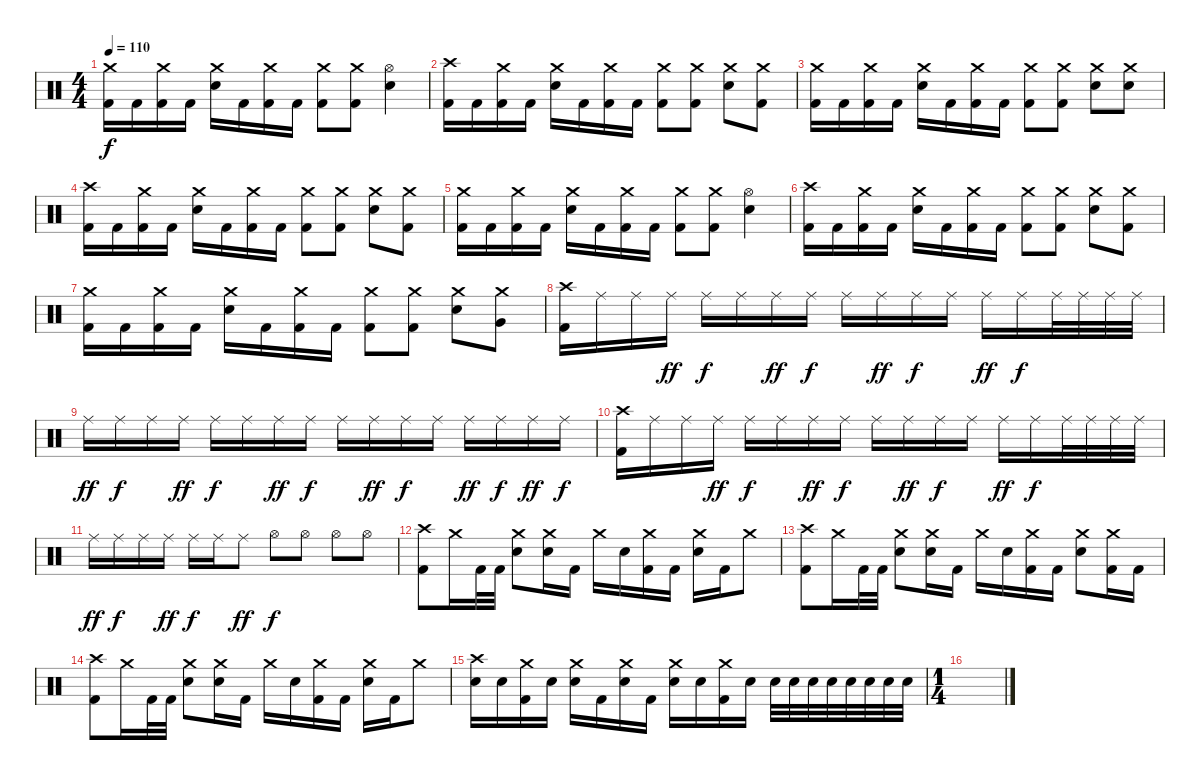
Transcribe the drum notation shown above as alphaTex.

\track "" {instrument percussion}
\staff {score}
\articulation defaults
\ts (4 4)
\tempo 110
\clef neutral
\ks c
("Crash medium (hit)" "Kick (hit) 2").16{dy f} "Kick (hit) 2".16 ("Crash medium (hit)" "Kick (hit) 2").16 "Kick (hit) 2".16 ("Crash medium (hit)" "Electric Snare (hit)").16 "Kick (hit) 2".16 ("Crash medium (hit)" "Kick (hit) 2").16 "Kick (hit) 2".16 ("Crash medium (hit)" "Kick (hit) 2").8 ("Crash medium (hit)" "Kick (hit) 2").8 ("Hi-Hat (open)" "Electric Snare (hit)").4 |
("Crash high (hit)" "Kick (hit) 2").16 "Kick (hit) 2".16 ("Crash medium (hit)" "Kick (hit) 2").16 "Kick (hit) 2".16 ("Crash medium (hit)" "Electric Snare (hit)").16 "Kick (hit) 2".16 ("Crash medium (hit)" "Kick (hit) 2").16 "Kick (hit) 2".16 ("Crash medium (hit)" "Kick (hit) 2").8 ("Crash medium (hit)" "Kick (hit) 2").8 ("Crash medium (hit)" "Electric Snare (hit)").8 ("Crash medium (hit)" "Kick (hit) 2").8 |
("Crash medium (hit)" "Kick (hit) 2").16 "Kick (hit) 2".16 ("Crash medium (hit)" "Kick (hit) 2").16 "Kick (hit) 2".16 ("Crash medium (hit)" "Electric Snare (hit)").16 "Kick (hit) 2".16 ("Crash medium (hit)" "Kick (hit) 2").16 "Kick (hit) 2".16 ("Crash medium (hit)" "Kick (hit) 2").8 ("Crash medium (hit)" "Kick (hit) 2").8 ("Crash medium (hit)" "Electric Snare (hit)").8 ("Crash medium (hit)" "Electric Snare (hit)").8 |
("Crash high (hit)" "Kick (hit) 2").16 "Kick (hit) 2".16 ("Crash medium (hit)" "Kick (hit) 2").16 "Kick (hit) 2".16 ("Crash medium (hit)" "Electric Snare (hit)").16 "Kick (hit) 2".16 ("Crash medium (hit)" "Kick (hit) 2").16 "Kick (hit) 2".16 ("Crash medium (hit)" "Kick (hit) 2").8 ("Crash medium (hit)" "Kick (hit) 2").8 ("Crash medium (hit)" "Electric Snare (hit)").8 ("Crash medium (hit)" "Kick (hit) 2").8 |
("Crash medium (hit)" "Kick (hit) 2").16 "Kick (hit) 2".16 ("Crash medium (hit)" "Kick (hit) 2").16 "Kick (hit) 2".16 ("Crash medium (hit)" "Electric Snare (hit)").16 "Kick (hit) 2".16 ("Crash medium (hit)" "Kick (hit) 2").16 "Kick (hit) 2".16 ("Crash medium (hit)" "Kick (hit) 2").8 ("Crash medium (hit)" "Kick (hit) 2").8 ("Hi-Hat (open)" "Electric Snare (hit)").4 |
("Crash high (hit)" "Kick (hit) 2").16 "Kick (hit) 2".16 ("Crash medium (hit)" "Kick (hit) 2").16 "Kick (hit) 2".16 ("Crash medium (hit)" "Electric Snare (hit)").16 "Kick (hit) 2".16 ("Crash medium (hit)" "Kick (hit) 2").16 "Kick (hit) 2".16 ("Crash medium (hit)" "Kick (hit) 2").8 ("Crash medium (hit)" "Kick (hit) 2").8 ("Crash medium (hit)" "Electric Snare (hit)").8 ("Crash medium (hit)" "Kick (hit) 2").8 |
("Crash medium (hit)" "Kick (hit) 2").16 "Kick (hit) 2".16 ("Crash medium (hit)" "Kick (hit) 2").16 "Kick (hit) 2".16 ("Crash medium (hit)" "Electric Snare (hit)").16 "Kick (hit) 2".16 ("Crash medium (hit)" "Kick (hit) 2").16 "Kick (hit) 2".16 ("Crash medium (hit)" "Kick (hit) 2").8 ("Crash medium (hit)" "Kick (hit) 2").8 ("Crash medium (hit)" "Electric Snare (hit)").8 ("Crash medium (hit)" "Very Low Tom (hit)").8 |
("Crash high (hit)" "Kick (hit) 2").16 "Ride (middle)".16 "Ride (middle)".16 "Ride (middle)".16{dy ff} "Ride (middle)".16{dy f} "Ride (middle)".16 "Ride (middle)".16{dy ff} "Ride (middle)".16{dy f} "Ride (middle)".16 "Ride (middle)".16{dy ff} "Ride (middle)".16{dy f} "Ride (middle)".16 "Ride (middle)".16{dy ff} "Ride (middle)".16{dy f} "Ride (middle)".32 "Ride (middle)".32 "Ride (middle)".32 "Ride (middle)".32 |
"Ride (middle)".16{dy ff} "Ride (middle)".16{dy f} "Ride (middle)".16 "Ride (middle)".16{dy ff} "Ride (middle)".16{dy f} "Ride (middle)".16 "Ride (middle)".16{dy ff} "Ride (middle)".16{dy f} "Ride (middle)".16 "Ride (middle)".16{dy ff} "Ride (middle)".16{dy f} "Ride (middle)".16 "Ride (middle)".16{dy ff} "Ride (middle)".16{dy f} "Ride (middle)".16{dy ff} "Ride (middle)".16{dy f} |
("Crash high (hit)" "Kick (hit) 2").16 "Ride (middle)".16 "Ride (middle)".16 "Ride (middle)".16{dy ff} "Ride (middle)".16{dy f} "Ride (middle)".16 "Ride (middle)".16{dy ff} "Ride (middle)".16{dy f} "Ride (middle)".16 "Ride (middle)".16{dy ff} "Ride (middle)".16{dy f} "Ride (middle)".16 "Ride (middle)".16{dy ff} "Ride (middle)".16{dy f} "Ride (middle)".32 "Ride (middle)".32 "Ride (middle)".32 "Ride (middle)".32 |
"Ride (middle)".16{dy ff} "Ride (middle)".16{dy f} "Ride (middle)".16 "Ride (middle)".16{dy ff} "Ride (middle)".16{dy f} "Ride (middle)".16 "Ride (middle)".8{dy ff} "Hi-Hat (open)".8{dy f} "Hi-Hat (open)".8 "Hi-Hat (open)".8 "Hi-Hat (open)".8 |
("Crash high (hit)" "Kick (hit) 2").8 "Crash medium (hit)".16 "Kick (hit) 2".32 "Kick (hit) 2".32 ("Crash medium (hit)" "Electric Snare (hit)").8 ("Crash medium (hit)" "Electric Snare (hit)").16 "Kick (hit) 2".16 "Crash medium (hit)".16 "Electric Snare (hit)".16 ("Crash medium (hit)" "Kick (hit) 2").16 "Kick (hit) 2".16 ("Crash medium (hit)" "Electric Snare (hit)").16 "Kick (hit) 2".16 "Crash medium (hit)".8 |
("Crash high (hit)" "Kick (hit) 2").8 "Crash medium (hit)".16 "Kick (hit) 2".32 "Kick (hit) 2".32 ("Crash medium (hit)" "Electric Snare (hit)").8 ("Crash medium (hit)" "Electric Snare (hit)").16 "Kick (hit) 2".16 "Crash medium (hit)".16 "Electric Snare (hit)".16 ("Crash medium (hit)" "Kick (hit) 2").16 "Kick (hit) 2".16 ("Crash medium (hit)" "Electric Snare (hit)").8 ("Crash medium (hit)" "Kick (hit) 2").16 "Kick (hit) 2".16 |
("Crash high (hit)" "Kick (hit) 2").8 "Crash medium (hit)".16 "Kick (hit) 2".32 "Kick (hit) 2".32 ("Crash medium (hit)" "Electric Snare (hit)").8 ("Crash medium (hit)" "Electric Snare (hit)").16 "Kick (hit) 2".16 "Crash medium (hit)".16 "Electric Snare (hit)".16 ("Crash medium (hit)" "Kick (hit) 2").16 "Kick (hit) 2".16 ("Crash medium (hit)" "Electric Snare (hit)").16 "Kick (hit) 2".16 "Crash medium (hit)".8 |
("Crash high (hit)" "Electric Snare (hit)").16 "Electric Snare (hit)".16 ("Crash medium (hit)" "Kick (hit) 2").16 "Electric Snare (hit)".16 ("Crash medium (hit)" "Electric Snare (hit)").16 "Kick (hit) 2".16 ("Crash medium (hit)" "Electric Snare (hit)").16 "Kick (hit) 2".16 ("Crash medium (hit)" "Electric Snare (hit)").16 "Electric Snare (hit)".16 ("Crash medium (hit)" "Kick (hit) 2").16 "Electric Snare (hit)".16 "Electric Snare (hit)".32 "Electric Snare (hit)".32 "Electric Snare (hit)".32 "Electric Snare (hit)".32 "Electric Snare (hit)".32 "Electric Snare (hit)".32 "Electric Snare (hit)".32 "Electric Snare (hit)".32 |
\ts (1 4)
